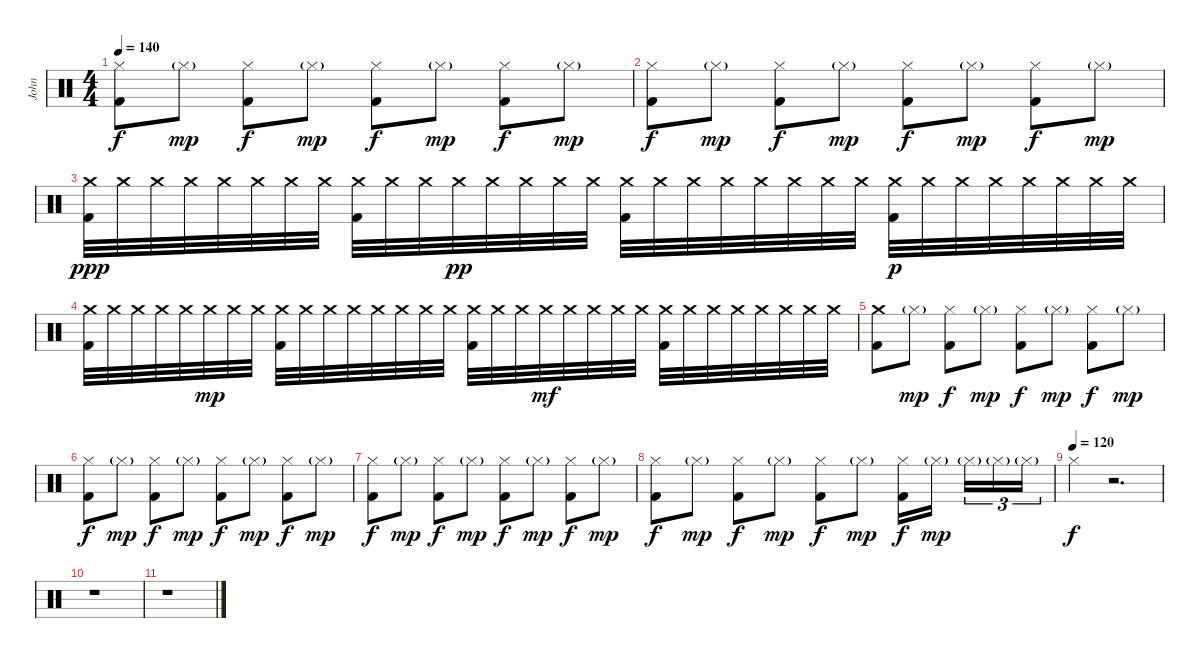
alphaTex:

\track ("John" "John") {instrument percussion}
\staff {score}
\articulation defaults
\ts (4 4)
\tempo 140
\clef neutral
\ks c
("Hi-Hat (closed)" "Kick (hit) 2").8{dy f} "Hi-Hat (closed)"{g}.8{dy mp} ("Hi-Hat (closed)" "Kick (hit) 2").8{dy f} "Hi-Hat (closed)"{g}.8{dy mp} ("Hi-Hat (closed)" "Kick (hit) 2").8{dy f} "Hi-Hat (closed)"{g}.8{dy mp} ("Hi-Hat (closed)" "Kick (hit) 2").8{dy f} "Hi-Hat (closed)"{g}.8{dy mp} |
("Hi-Hat (closed)" "Kick (hit) 2").8{dy f} "Hi-Hat (closed)"{g}.8{dy mp} ("Hi-Hat (closed)" "Kick (hit) 2").8{dy f} "Hi-Hat (closed)"{g}.8{dy mp} ("Hi-Hat (closed)" "Kick (hit) 2").8{dy f} "Hi-Hat (closed)"{g}.8{dy mp} ("Hi-Hat (closed)" "Kick (hit) 2").8{dy f} "Hi-Hat (closed)"{g}.8{dy mp} |
("Crash medium (hit)" "Kick (hit) 2").32{dy ppp} "Crash medium (hit)".32 "Crash medium (hit)".32 "Crash medium (hit)".32 "Crash medium (hit)".32 "Crash medium (hit)".32 "Crash medium (hit)".32 "Crash medium (hit)".32 ("Crash medium (hit)" "Kick (hit) 2").32 "Crash medium (hit)".32 "Crash medium (hit)".32 "Crash medium (hit)".32{dy pp} "Crash medium (hit)".32 "Crash medium (hit)".32 "Crash medium (hit)".32 "Crash medium (hit)".32 ("Crash medium (hit)" "Kick (hit) 2").32 "Crash medium (hit)".32 "Crash medium (hit)".32 "Crash medium (hit)".32 "Crash medium (hit)".32 "Crash medium (hit)".32 "Crash medium (hit)".32 "Crash medium (hit)".32 ("Crash medium (hit)" "Kick (hit) 2").32{dy p} "Crash medium (hit)".32 "Crash medium (hit)".32 "Crash medium (hit)".32 "Crash medium (hit)".32 "Crash medium (hit)".32 "Crash medium (hit)".32 "Crash medium (hit)".32 |
("Crash medium (hit)" "Kick (hit) 2").32 "Crash medium (hit)".32 "Crash medium (hit)".32 "Crash medium (hit)".32 "Crash medium (hit)".32 "Crash medium (hit)".32{dy mp} "Crash medium (hit)".32 "Crash medium (hit)".32 ("Crash medium (hit)" "Kick (hit) 2").32 "Crash medium (hit)".32 "Crash medium (hit)".32 "Crash medium (hit)".32 "Crash medium (hit)".32 "Crash medium (hit)".32 "Crash medium (hit)".32 "Crash medium (hit)".32 ("Crash medium (hit)" "Kick (hit) 2").32 "Crash medium (hit)".32 "Crash medium (hit)".32 "Crash medium (hit)".32{dy mf} "Crash medium (hit)".32 "Crash medium (hit)".32 "Crash medium (hit)".32 "Crash medium (hit)".32 ("Crash medium (hit)" "Kick (hit) 2").32 "Crash medium (hit)".32 "Crash medium (hit)".32 "Crash medium (hit)".32 "Crash medium (hit)".32 "Crash medium (hit)".32 "Crash medium (hit)".32 "Crash medium (hit)".32 |
("Crash medium (hit)" "Kick (hit) 2").8 "Hi-Hat (closed)"{g}.8{dy mp} ("Hi-Hat (closed)" "Kick (hit) 2").8{dy f} "Hi-Hat (closed)"{g}.8{dy mp} ("Hi-Hat (closed)" "Kick (hit) 2").8{dy f} "Hi-Hat (closed)"{g}.8{dy mp} ("Hi-Hat (closed)" "Kick (hit) 2").8{dy f} "Hi-Hat (closed)"{g}.8{dy mp} |
("Hi-Hat (closed)" "Kick (hit) 2").8{dy f} "Hi-Hat (closed)"{g}.8{dy mp} ("Hi-Hat (closed)" "Kick (hit) 2").8{dy f} "Hi-Hat (closed)"{g}.8{dy mp} ("Hi-Hat (closed)" "Kick (hit) 2").8{dy f} "Hi-Hat (closed)"{g}.8{dy mp} ("Hi-Hat (closed)" "Kick (hit) 2").8{dy f} "Hi-Hat (closed)"{g}.8{dy mp} |
("Hi-Hat (closed)" "Kick (hit) 2").8{dy f} "Hi-Hat (closed)"{g}.8{dy mp} ("Hi-Hat (closed)" "Kick (hit) 2").8{dy f} "Hi-Hat (closed)"{g}.8{dy mp} ("Hi-Hat (closed)" "Kick (hit) 2").8{dy f} "Hi-Hat (closed)"{g}.8{dy mp} ("Hi-Hat (closed)" "Kick (hit) 2").8{dy f} "Hi-Hat (closed)"{g}.8{dy mp} |
("Hi-Hat (closed)" "Kick (hit) 2").8{dy f} "Hi-Hat (closed)"{g}.8{dy mp} ("Hi-Hat (closed)" "Kick (hit) 2").8{dy f} "Hi-Hat (closed)"{g}.8{dy mp} ("Hi-Hat (closed)" "Kick (hit) 2").8{dy f} "Hi-Hat (closed)"{g}.8{dy mp} ("Hi-Hat (closed)" "Kick (hit) 2").16{dy f} "Hi-Hat (closed)"{g}.16{dy mp beam splitsecondary} "Hi-Hat (closed)"{g}.16{tu (3 2)} "Hi-Hat (closed)"{g}.16{tu (3 2)} "Hi-Hat (closed)"{g}.16{tu (3 2)} |
\tempo (120)
"Hi-Hat (closed)".4{dy f} r.2{d} |
r.1 |
r.1
